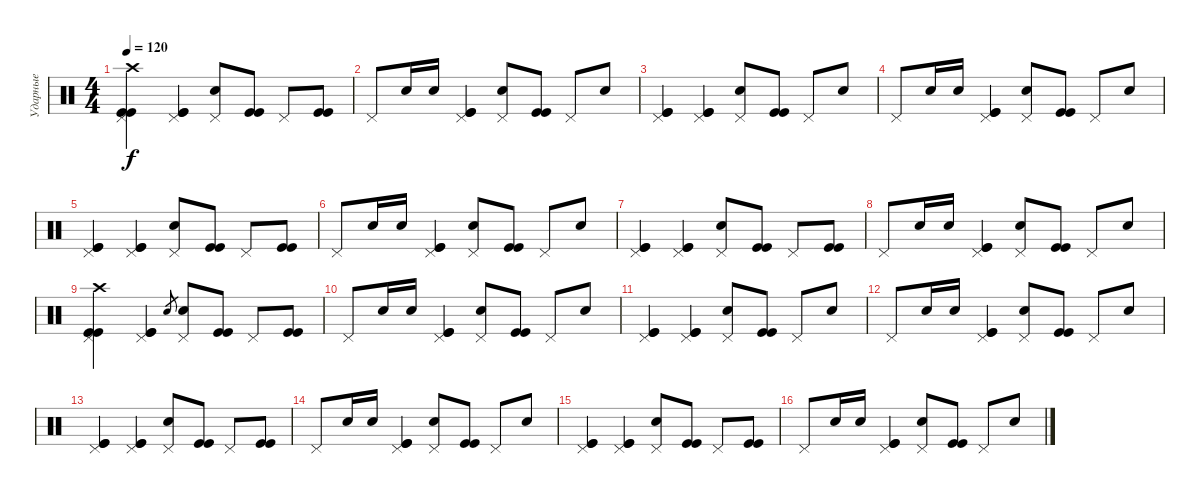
\track ("Ударные" "Ударные") {instrument percussion}
\staff {score}
\articulation defaults
\ts (4 4)
\tempo 120
\clef neutral
\ks c
("Crash high (hit)" "Pedal Hi-Hat (hit)" "Kick (hit)" "Kick (hit)").4{dy f} ("Pedal Hi-Hat (hit)" "Kick (hit)" "Kick (hit)").4 ("Snare (hit) 2" "Pedal Hi-Hat (hit)").8 ("Kick (hit)" "Kick (hit)").8 "Pedal Hi-Hat (hit)".8 ("Kick (hit)" "Kick (hit)").8 |
"Pedal Hi-Hat (hit)".8 "Snare (hit) 2".16 "Snare (hit) 2".16 ("Pedal Hi-Hat (hit)" "Kick (hit)" "Kick (hit)").4 ("Snare (hit) 2" "Pedal Hi-Hat (hit)").8 ("Kick (hit)" "Kick (hit)").8 "Pedal Hi-Hat (hit)".8 "Snare (hit) 2".8 |
("Pedal Hi-Hat (hit)" "Kick (hit)" "Kick (hit)").4 ("Pedal Hi-Hat (hit)" "Kick (hit)" "Kick (hit)").4 ("Snare (hit) 2" "Pedal Hi-Hat (hit)").8 ("Kick (hit)" "Kick (hit)").8 "Pedal Hi-Hat (hit)".8 "Snare (hit) 2".8 |
"Pedal Hi-Hat (hit)".8 "Snare (hit) 2".16 "Snare (hit) 2".16 ("Pedal Hi-Hat (hit)" "Kick (hit)" "Kick (hit)").4 ("Snare (hit) 2" "Pedal Hi-Hat (hit)").8 ("Kick (hit)" "Kick (hit)").8 "Pedal Hi-Hat (hit)".8 "Snare (hit) 2".8 |
("Pedal Hi-Hat (hit)" "Kick (hit)" "Kick (hit)").4 ("Pedal Hi-Hat (hit)" "Kick (hit)" "Kick (hit)").4 ("Snare (hit) 2" "Pedal Hi-Hat (hit)").8 ("Kick (hit)" "Kick (hit)").8 "Pedal Hi-Hat (hit)".8 ("Kick (hit)" "Kick (hit)").8 |
"Pedal Hi-Hat (hit)".8 "Snare (hit) 2".16 "Snare (hit) 2".16 ("Pedal Hi-Hat (hit)" "Kick (hit)" "Kick (hit)").4 ("Snare (hit) 2" "Pedal Hi-Hat (hit)").8 ("Kick (hit)" "Kick (hit)").8 "Pedal Hi-Hat (hit)".8 "Snare (hit) 2".8 |
("Pedal Hi-Hat (hit)" "Kick (hit)" "Kick (hit)").4 ("Pedal Hi-Hat (hit)" "Kick (hit)" "Kick (hit)").4 ("Snare (hit) 2" "Pedal Hi-Hat (hit)").8 ("Kick (hit)" "Kick (hit)").8 "Pedal Hi-Hat (hit)".8 ("Kick (hit)" "Kick (hit)").8 |
"Pedal Hi-Hat (hit)".8 "Snare (hit) 2".16 "Snare (hit) 2".16 ("Pedal Hi-Hat (hit)" "Kick (hit)" "Kick (hit)").4 ("Snare (hit) 2" "Pedal Hi-Hat (hit)").8 ("Kick (hit)" "Kick (hit)").8 "Pedal Hi-Hat (hit)".8 "Snare (hit) 2".8 |
("Crash high (hit)" "Pedal Hi-Hat (hit)" "Kick (hit)" "Kick (hit)").4 ("Pedal Hi-Hat (hit)" "Kick (hit)" "Kick (hit)").4 "Snare (hit) 2".8{gr} ("Snare (hit) 2" "Pedal Hi-Hat (hit)").8 ("Kick (hit)" "Kick (hit)").8 "Pedal Hi-Hat (hit)".8 ("Kick (hit)" "Kick (hit)").8 |
"Pedal Hi-Hat (hit)".8 "Snare (hit) 2".16 "Snare (hit) 2".16 ("Pedal Hi-Hat (hit)" "Kick (hit)" "Kick (hit)").4 ("Snare (hit) 2" "Pedal Hi-Hat (hit)").8 ("Kick (hit)" "Kick (hit)").8 "Pedal Hi-Hat (hit)".8 "Snare (hit) 2".8 |
("Pedal Hi-Hat (hit)" "Kick (hit)" "Kick (hit)").4 ("Pedal Hi-Hat (hit)" "Kick (hit)" "Kick (hit)").4 ("Snare (hit) 2" "Pedal Hi-Hat (hit)").8 ("Kick (hit)" "Kick (hit)").8 "Pedal Hi-Hat (hit)".8 "Snare (hit) 2".8 |
"Pedal Hi-Hat (hit)".8 "Snare (hit) 2".16 "Snare (hit) 2".16 ("Pedal Hi-Hat (hit)" "Kick (hit)" "Kick (hit)").4 ("Snare (hit) 2" "Pedal Hi-Hat (hit)").8 ("Kick (hit)" "Kick (hit)").8 "Pedal Hi-Hat (hit)".8 "Snare (hit) 2".8 |
("Pedal Hi-Hat (hit)" "Kick (hit)" "Kick (hit)").4 ("Pedal Hi-Hat (hit)" "Kick (hit)" "Kick (hit)").4 ("Snare (hit) 2" "Pedal Hi-Hat (hit)").8 ("Kick (hit)" "Kick (hit)").8 "Pedal Hi-Hat (hit)".8 ("Kick (hit)" "Kick (hit)").8 |
"Pedal Hi-Hat (hit)".8 "Snare (hit) 2".16 "Snare (hit) 2".16 ("Pedal Hi-Hat (hit)" "Kick (hit)" "Kick (hit)").4 ("Snare (hit) 2" "Pedal Hi-Hat (hit)").8 ("Kick (hit)" "Kick (hit)").8 "Pedal Hi-Hat (hit)".8 "Snare (hit) 2".8 |
("Pedal Hi-Hat (hit)" "Kick (hit)" "Kick (hit)").4 ("Pedal Hi-Hat (hit)" "Kick (hit)" "Kick (hit)").4 ("Snare (hit) 2" "Pedal Hi-Hat (hit)").8 ("Kick (hit)" "Kick (hit)").8 "Pedal Hi-Hat (hit)".8 ("Kick (hit)" "Kick (hit)").8 |
"Pedal Hi-Hat (hit)".8 "Snare (hit) 2".16 "Snare (hit) 2".16 ("Pedal Hi-Hat (hit)" "Kick (hit)" "Kick (hit)").4 ("Snare (hit) 2" "Pedal Hi-Hat (hit)").8 ("Kick (hit)" "Kick (hit)").8 "Pedal Hi-Hat (hit)".8 "Snare (hit) 2".8
